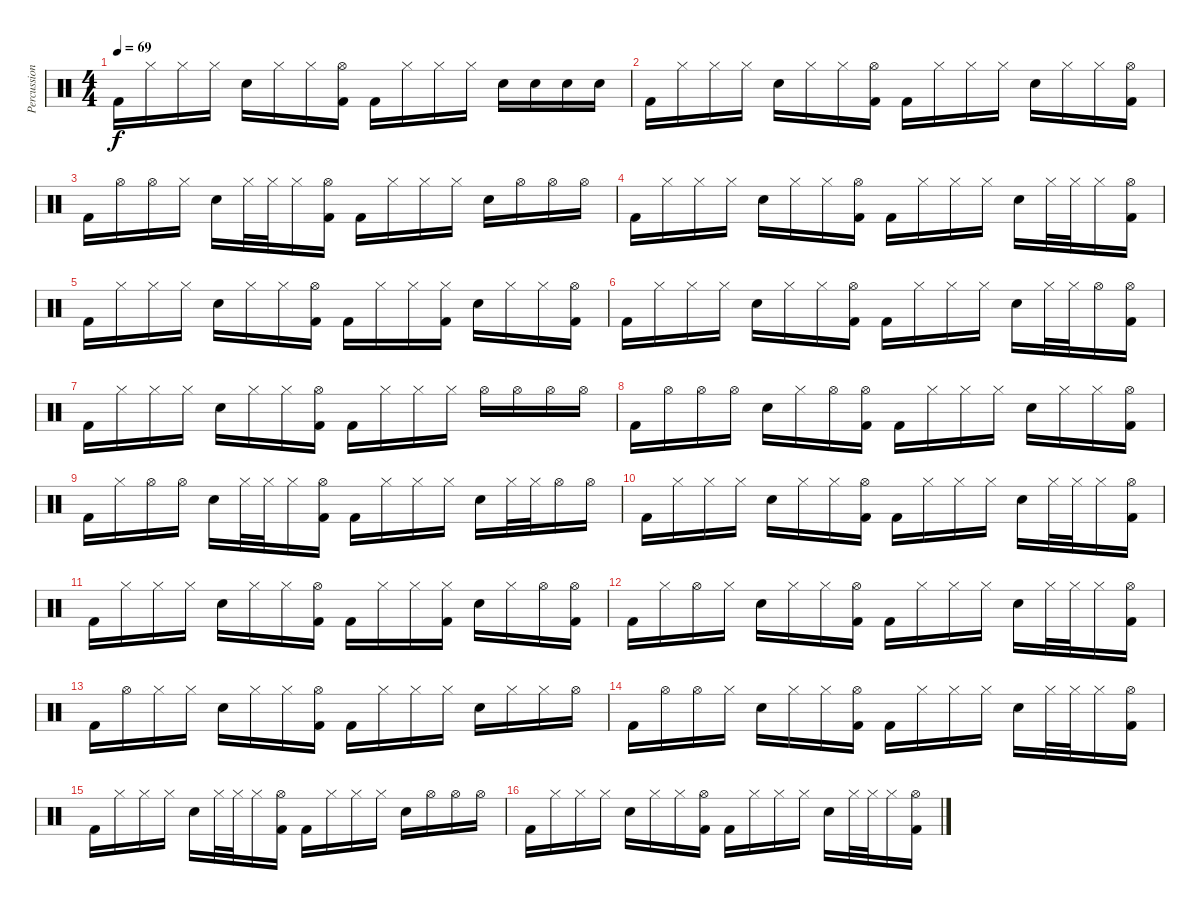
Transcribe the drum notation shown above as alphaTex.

\track ("Percussions" "Percussion") {instrument percussion}
\staff {score}
\articulation defaults
\ts (4 4)
\tempo 69
\clef neutral
\ks c "Kick (hit) 2".16{dy f} "Hi-Hat (closed)".16 "Hi-Hat (closed)".16 "Hi-Hat (closed)".16 "Electric Snare (hit)".16 "Hi-Hat (closed)".16 "Hi-Hat (closed)".16
("Hi-Hat (open)" "Kick (hit) 2").16 "Kick (hit) 2".16 "Hi-Hat (closed)".16 "Hi-Hat (closed)".16 "Hi-Hat (closed)".16 "Electric Snare (hit)".16 "Electric Snare (hit)".16 "Electric Snare (hit)".16 "Electric Snare (hit)".16 |
"Kick (hit) 2".16 "Hi-Hat (closed)".16 "Hi-Hat (closed)".16 "Hi-Hat (closed)".16 "Electric Snare (hit)".16 "Hi-Hat (closed)".16 "Hi-Hat (closed)".16 ("Hi-Hat (open)" "Kick (hit) 2").16 "Kick (hit) 2".16 "Hi-Hat (closed)".16 "Hi-Hat (closed)".16 "Hi-Hat (closed)".16 "Electric Snare (hit)".16 "Hi-Hat (closed)".16 "Hi-Hat (closed)".16 ("Hi-Hat (open)" "Kick (hit) 2").16 |
"Kick (hit) 2".16 "Hi-Hat (open)".16 "Hi-Hat (open)".16 "Hi-Hat (closed)".16 "Electric Snare (hit)".16 "Hi-Hat (closed)".32 "Hi-Hat (closed)".32 "Hi-Hat (closed)".16 ("Hi-Hat (open)" "Kick (hit) 2").16 "Kick (hit) 2".16 "Hi-Hat (closed)".16 "Hi-Hat (closed)".16 "Hi-Hat (closed)".16 "Electric Snare (hit)".16 "Hi-Hat (open)".16 "Hi-Hat (open)".16 "Hi-Hat (open)".16 |
"Kick (hit) 2".16 "Hi-Hat (closed)".16 "Hi-Hat (closed)".16 "Hi-Hat (closed)".16 "Electric Snare (hit)".16 "Hi-Hat (closed)".16 "Hi-Hat (closed)".16 ("Hi-Hat (open)" "Kick (hit) 2").16 "Kick (hit) 2".16 "Hi-Hat (closed)".16 "Hi-Hat (closed)".16 "Hi-Hat (closed)".16 "Electric Snare (hit)".16 "Hi-Hat (closed)".32 "Hi-Hat (closed)".32 "Hi-Hat (closed)".16 ("Hi-Hat (open)" "Kick (hit) 2").16 |
"Kick (hit) 2".16 "Hi-Hat (closed)".16 "Hi-Hat (closed)".16 "Hi-Hat (closed)".16 "Electric Snare (hit)".16 "Hi-Hat (closed)".16 "Hi-Hat (closed)".16 ("Hi-Hat (open)" "Kick (hit) 2").16 "Kick (hit) 2".16 "Hi-Hat (closed)".16 "Hi-Hat (closed)".16 ("Hi-Hat (closed)" "Kick (hit) 2").16 "Electric Snare (hit)".16 "Hi-Hat (closed)".16 "Hi-Hat (closed)".16 ("Hi-Hat (open)" "Kick (hit) 2").16 |
"Kick (hit) 2".16 "Hi-Hat (closed)".16 "Hi-Hat (closed)".16 "Hi-Hat (closed)".16 "Electric Snare (hit)".16 "Hi-Hat (closed)".16 "Hi-Hat (closed)".16 ("Hi-Hat (open)" "Kick (hit) 2").16 "Kick (hit) 2".16 "Hi-Hat (closed)".16 "Hi-Hat (closed)".16 "Hi-Hat (closed)".16 "Electric Snare (hit)".16 "Hi-Hat (closed)".32 "Hi-Hat (closed)".32 "Hi-Hat (open)".16 ("Hi-Hat (open)" "Kick (hit) 2").16 |
"Kick (hit) 2".16 "Hi-Hat (closed)".16 "Hi-Hat (closed)".16 "Hi-Hat (closed)".16 "Electric Snare (hit)".16 "Hi-Hat (closed)".16 "Hi-Hat (closed)".16 ("Hi-Hat (open)" "Kick (hit) 2").16 "Kick (hit) 2".16 "Hi-Hat (closed)".16 "Hi-Hat (closed)".16 "Hi-Hat (closed)".16 "Hi-Hat (open)".16 "Hi-Hat (open)".16 "Hi-Hat (open)".16 "Hi-Hat (open)".16 |
"Kick (hit) 2".16 "Hi-Hat (open)".16 "Hi-Hat (open)".16 "Hi-Hat (open)".16 "Electric Snare (hit)".16 "Hi-Hat (closed)".16 "Hi-Hat (open)".16 ("Hi-Hat (open)" "Kick (hit) 2").16 "Kick (hit) 2".16 "Hi-Hat (closed)".16 "Hi-Hat (closed)".16 "Hi-Hat (closed)".16 "Electric Snare (hit)".16 "Hi-Hat (closed)".16 "Hi-Hat (closed)".16 ("Hi-Hat (open)" "Kick (hit) 2").16 |
"Kick (hit) 2".16 "Hi-Hat (closed)".16 "Hi-Hat (open)".16 "Hi-Hat (open)".16 "Electric Snare (hit)".16 "Hi-Hat (closed)".32 "Hi-Hat (closed)".32 "Hi-Hat (closed)".16 ("Hi-Hat (open)" "Kick (hit) 2").16 "Kick (hit) 2".16 "Hi-Hat (closed)".16 "Hi-Hat (closed)".16 "Hi-Hat (closed)".16 "Electric Snare (hit)".16 "Hi-Hat (closed)".32 "Hi-Hat (closed)".32 "Hi-Hat (open)".16 "Hi-Hat (open)".16 |
"Kick (hit) 2".16 "Hi-Hat (closed)".16 "Hi-Hat (closed)".16 "Hi-Hat (closed)".16 "Electric Snare (hit)".16 "Hi-Hat (closed)".16 "Hi-Hat (closed)".16 ("Hi-Hat (open)" "Kick (hit) 2").16 "Kick (hit) 2".16 "Hi-Hat (closed)".16 "Hi-Hat (closed)".16 "Hi-Hat (closed)".16 "Electric Snare (hit)".16 "Hi-Hat (closed)".32 "Hi-Hat (closed)".32 "Hi-Hat (closed)".16 ("Hi-Hat (open)" "Kick (hit) 2").16 |
"Kick (hit) 2".16 "Hi-Hat (closed)".16 "Hi-Hat (closed)".16 "Hi-Hat (closed)".16 "Electric Snare (hit)".16 "Hi-Hat (closed)".16 "Hi-Hat (closed)".16 ("Hi-Hat (open)" "Kick (hit) 2").16 "Kick (hit) 2".16 "Hi-Hat (closed)".16 "Hi-Hat (closed)".16 ("Hi-Hat (closed)" "Kick (hit) 2").16 "Electric Snare (hit)".16 "Hi-Hat (closed)".16 "Hi-Hat (open)".16 ("Hi-Hat (open)" "Kick (hit) 2").16 |
"Kick (hit) 2".16 "Hi-Hat (closed)".16 "Hi-Hat (open)".16 "Hi-Hat (closed)".16 "Electric Snare (hit)".16 "Hi-Hat (closed)".16 "Hi-Hat (closed)".16 ("Hi-Hat (open)" "Kick (hit) 2").16 "Kick (hit) 2".16 "Hi-Hat (closed)".16 "Hi-Hat (closed)".16 "Hi-Hat (closed)".16 "Electric Snare (hit)".16 "Hi-Hat (closed)".32 "Hi-Hat (closed)".32 "Hi-Hat (closed)".16 ("Hi-Hat (open)" "Kick (hit) 2").16 |
"Kick (hit) 2".16 "Hi-Hat (open)".16 "Hi-Hat (closed)".16 "Hi-Hat (closed)".16 "Electric Snare (hit)".16 "Hi-Hat (closed)".16 "Hi-Hat (closed)".16 ("Hi-Hat (open)" "Kick (hit) 2").16 "Kick (hit) 2".16 "Hi-Hat (closed)".16 "Hi-Hat (closed)".16 "Hi-Hat (closed)".16 "Electric Snare (hit)".16 "Hi-Hat (closed)".16 "Hi-Hat (closed)".16 "Hi-Hat (open)".16 |
"Kick (hit) 2".16 "Hi-Hat (open)".16 "Hi-Hat (open)".16 "Hi-Hat (closed)".16 "Electric Snare (hit)".16 "Hi-Hat (closed)".16 "Hi-Hat (closed)".16 ("Hi-Hat (open)" "Kick (hit) 2").16 "Kick (hit) 2".16 "Hi-Hat (closed)".16 "Hi-Hat (closed)".16 "Hi-Hat (closed)".16 "Electric Snare (hit)".16 "Hi-Hat (closed)".32 "Hi-Hat (closed)".32 "Hi-Hat (closed)".16 ("Hi-Hat (open)" "Kick (hit) 2").16 |
"Kick (hit) 2".16 "Hi-Hat (closed)".16 "Hi-Hat (closed)".16 "Hi-Hat (closed)".16 "Electric Snare (hit)".16 "Hi-Hat (closed)".32 "Hi-Hat (closed)".32 "Hi-Hat (closed)".16 ("Hi-Hat (open)" "Kick (hit) 2").16 "Kick (hit) 2".16 "Hi-Hat (closed)".16 "Hi-Hat (closed)".16 "Hi-Hat (closed)".16 "Electric Snare (hit)".16 "Hi-Hat (open)".16 "Hi-Hat (open)".16 "Hi-Hat (open)".16 |
"Kick (hit) 2".16 "Hi-Hat (closed)".16 "Hi-Hat (closed)".16 "Hi-Hat (closed)".16 "Electric Snare (hit)".16 "Hi-Hat (closed)".16 "Hi-Hat (closed)".16 ("Hi-Hat (open)" "Kick (hit) 2").16 "Kick (hit) 2".16 "Hi-Hat (closed)".16 "Hi-Hat (closed)".16 "Hi-Hat (closed)".16 "Electric Snare (hit)".16 "Hi-Hat (closed)".32 "Hi-Hat (closed)".32 "Hi-Hat (closed)".16 ("Hi-Hat (open)" "Kick (hit) 2").16
